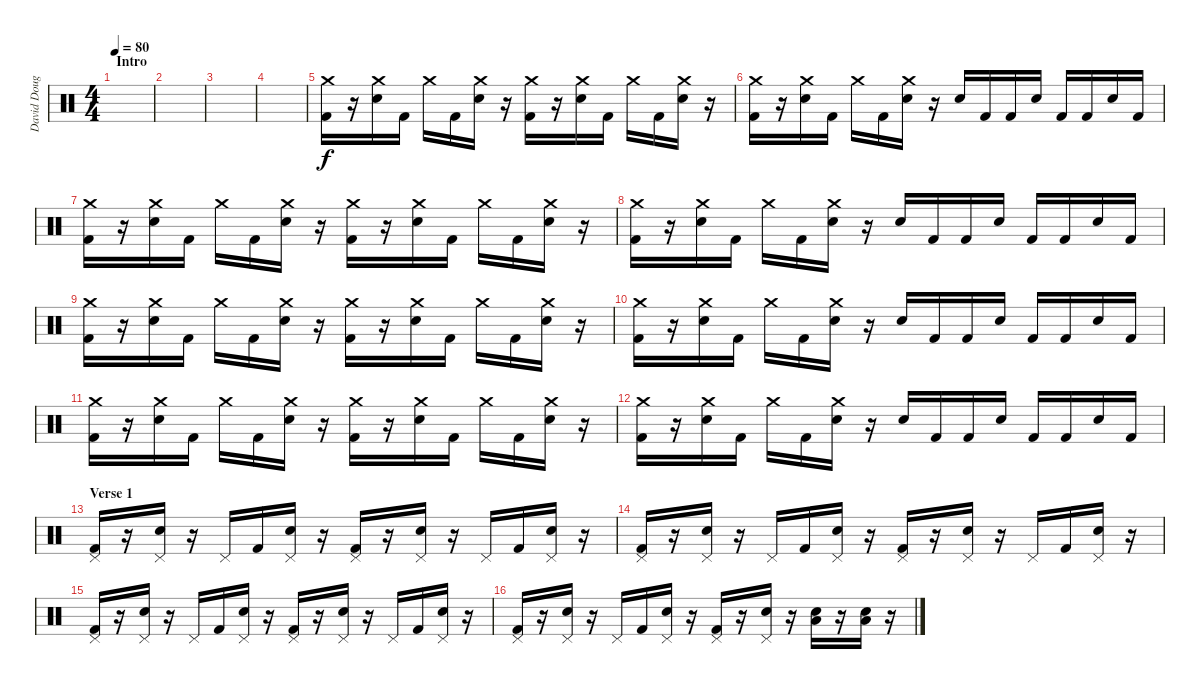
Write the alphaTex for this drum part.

\track ("David Douglas" "David Doug") {instrument percussion}
\staff {score}
\articulation defaults
\ts (4 4)
\section ("" "Intro")
\tempo 80
\clef neutral
\ks c
|
|
|
|
("Crash medium (hit)" "Kick (hit) 2").16 r.16 ("Crash medium (hit)" "Electric Snare (hit)").16 "Kick (hit) 2".16 "Crash medium (hit)".16 "Kick (hit) 2".16 ("Crash medium (hit)" "Electric Snare (hit)").16 r.16 ("Crash medium (hit)" "Kick (hit) 2").16 r.16 ("Crash medium (hit)" "Electric Snare (hit)").16 "Kick (hit) 2".16 "Crash medium (hit)".16 "Kick (hit) 2".16 ("Crash medium (hit)" "Electric Snare (hit)").16 r.16 |
("Crash medium (hit)" "Kick (hit) 2").16 r.16 ("Crash medium (hit)" "Electric Snare (hit)").16 "Kick (hit) 2".16 "Crash medium (hit)".16 "Kick (hit) 2".16 ("Crash medium (hit)" "Electric Snare (hit)").16 r.16 "Electric Snare (hit)".16 "Kick (hit) 2".16 "Kick (hit) 2".16 "Electric Snare (hit)".16 "Kick (hit) 2".16 "Kick (hit) 2".16 "Electric Snare (hit)".16 "Kick (hit) 2".16 |
("Crash medium (hit)" "Kick (hit) 2").16 r.16 ("Crash medium (hit)" "Electric Snare (hit)").16 "Kick (hit) 2".16 "Crash medium (hit)".16 "Kick (hit) 2".16 ("Crash medium (hit)" "Electric Snare (hit)").16 r.16 ("Crash medium (hit)" "Kick (hit) 2").16 r.16 ("Crash medium (hit)" "Electric Snare (hit)").16 "Kick (hit) 2".16 "Crash medium (hit)".16 "Kick (hit) 2".16 ("Crash medium (hit)" "Electric Snare (hit)").16 r.16 |
("Crash medium (hit)" "Kick (hit) 2").16 r.16 ("Crash medium (hit)" "Electric Snare (hit)").16 "Kick (hit) 2".16 "Crash medium (hit)".16 "Kick (hit) 2".16 ("Crash medium (hit)" "Electric Snare (hit)").16 r.16 "Electric Snare (hit)".16 "Kick (hit) 2".16 "Kick (hit) 2".16 "Electric Snare (hit)".16 "Kick (hit) 2".16 "Kick (hit) 2".16 "Electric Snare (hit)".16 "Kick (hit) 2".16 |
("Crash medium (hit)" "Kick (hit) 2").16 r.16 ("Crash medium (hit)" "Electric Snare (hit)").16 "Kick (hit) 2".16 "Crash medium (hit)".16 "Kick (hit) 2".16 ("Crash medium (hit)" "Electric Snare (hit)").16 r.16 ("Crash medium (hit)" "Kick (hit) 2").16 r.16 ("Crash medium (hit)" "Electric Snare (hit)").16 "Kick (hit) 2".16 "Crash medium (hit)".16 "Kick (hit) 2".16 ("Crash medium (hit)" "Electric Snare (hit)").16 r.16 |
("Crash medium (hit)" "Kick (hit) 2").16 r.16 ("Crash medium (hit)" "Electric Snare (hit)").16 "Kick (hit) 2".16 "Crash medium (hit)".16 "Kick (hit) 2".16 ("Crash medium (hit)" "Electric Snare (hit)").16 r.16 "Electric Snare (hit)".16 "Kick (hit) 2".16 "Kick (hit) 2".16 "Electric Snare (hit)".16 "Kick (hit) 2".16 "Kick (hit) 2".16 "Electric Snare (hit)".16 "Kick (hit) 2".16 |
("Crash medium (hit)" "Kick (hit) 2").16 r.16 ("Crash medium (hit)" "Electric Snare (hit)").16 "Kick (hit) 2".16 "Crash medium (hit)".16 "Kick (hit) 2".16 ("Crash medium (hit)" "Electric Snare (hit)").16 r.16 ("Crash medium (hit)" "Kick (hit) 2").16 r.16 ("Crash medium (hit)" "Electric Snare (hit)").16 "Kick (hit) 2".16 "Crash medium (hit)".16 "Kick (hit) 2".16 ("Crash medium (hit)" "Electric Snare (hit)").16 r.16 |
("Crash medium (hit)" "Kick (hit) 2").16 r.16 ("Crash medium (hit)" "Electric Snare (hit)").16 "Kick (hit) 2".16 "Crash medium (hit)".16 "Kick (hit) 2".16 ("Crash medium (hit)" "Electric Snare (hit)").16 r.16 "Electric Snare (hit)".16 "Kick (hit) 2".16 "Kick (hit) 2".16 "Electric Snare (hit)".16 "Kick (hit) 2".16 "Kick (hit) 2".16 "Electric Snare (hit)".16 "Kick (hit) 2".16 |
\section ("" "Verse 1")
("Pedal Hi-Hat (hit)" "Kick (hit) 2").16 r.16 ("Pedal Hi-Hat (hit)" "Electric Snare (hit)").16 r.16 "Pedal Hi-Hat (hit)".16 "Kick (hit) 2".16 ("Pedal Hi-Hat (hit)" "Electric Snare (hit)").16 r.16 ("Pedal Hi-Hat (hit)" "Kick (hit) 2").16 r.16 ("Pedal Hi-Hat (hit)" "Electric Snare (hit)").16 r.16 "Pedal Hi-Hat (hit)".16 "Kick (hit) 2".16 ("Pedal Hi-Hat (hit)" "Electric Snare (hit)").16 r.16 |
("Pedal Hi-Hat (hit)" "Kick (hit) 2").16 r.16 ("Pedal Hi-Hat (hit)" "Electric Snare (hit)").16 r.16 "Pedal Hi-Hat (hit)".16 "Kick (hit) 2".16 ("Pedal Hi-Hat (hit)" "Electric Snare (hit)").16 r.16 ("Pedal Hi-Hat (hit)" "Kick (hit) 2").16 r.16 ("Pedal Hi-Hat (hit)" "Electric Snare (hit)").16 r.16 "Pedal Hi-Hat (hit)".16 "Kick (hit) 2".16 ("Pedal Hi-Hat (hit)" "Electric Snare (hit)").16 r.16 |
("Pedal Hi-Hat (hit)" "Kick (hit) 2").16 r.16 ("Pedal Hi-Hat (hit)" "Electric Snare (hit)").16 r.16 "Pedal Hi-Hat (hit)".16 "Kick (hit) 2".16 ("Pedal Hi-Hat (hit)" "Electric Snare (hit)").16 r.16 ("Pedal Hi-Hat (hit)" "Kick (hit) 2").16 r.16 ("Pedal Hi-Hat (hit)" "Electric Snare (hit)").16 r.16 "Pedal Hi-Hat (hit)".16 "Kick (hit) 2".16 ("Pedal Hi-Hat (hit)" "Electric Snare (hit)").16 r.16 |
("Pedal Hi-Hat (hit)" "Kick (hit) 2").16 r.16 ("Pedal Hi-Hat (hit)" "Electric Snare (hit)").16 r.16 "Pedal Hi-Hat (hit)".16 "Kick (hit) 2".16 ("Pedal Hi-Hat (hit)" "Electric Snare (hit)").16 r.16 ("Pedal Hi-Hat (hit)" "Kick (hit) 2").16 r.16 ("Pedal Hi-Hat (hit)" "Electric Snare (hit)").16 r.16 ("Low Tom (hit)" "Electric Snare (hit)").16 r.16 ("Low Tom (hit)" "Electric Snare (hit)").16 r.16
